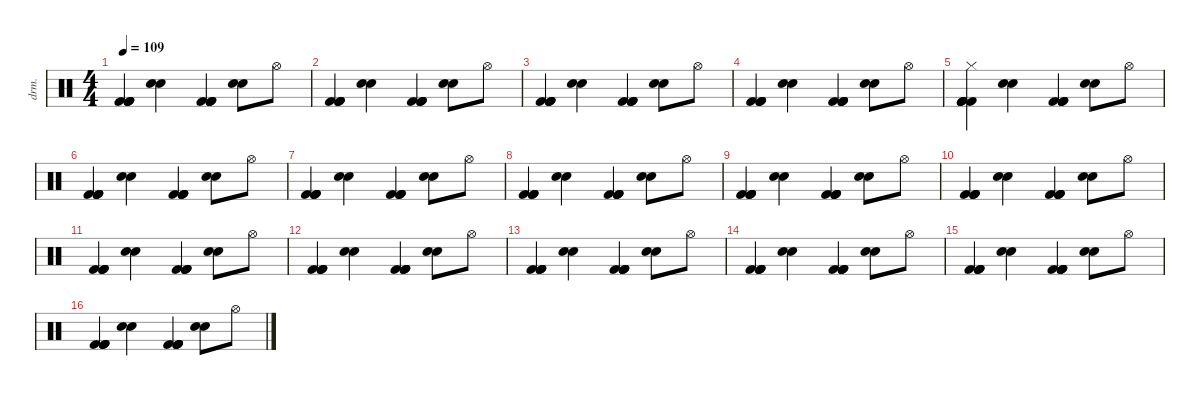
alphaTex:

\defaultSystemsLayout 4
\hideDynamics
\bracketExtendMode nobrackets
\otherSystemsTrackNameOrientation horizontal
\track ("Drums" "drm.") {instrument percussion}
\staff {score}
\articulation defaults
\ts (4 4)
\tempo 109
\clef neutral
\ks c
("Kick (hit) 2" "Kick (hit) 2" "Kick (hit) 2" "Kick (hit) 2").4{dy fff} ("Snare (hit) 2" "Snare (hit) 2").4{dy f} ("Kick (hit) 2" "Kick (hit) 2" "Kick (hit) 2" "Kick (hit) 2").4{dy fff} ("Snare (hit) 2" "Snare (hit) 2").8{dy f} "Hi-Hat (open)".8 |
("Kick (hit) 2" "Kick (hit) 2" "Kick (hit) 2" "Kick (hit) 2").4{dy fff} ("Snare (hit) 2" "Snare (hit) 2").4{dy f} ("Kick (hit) 2" "Kick (hit) 2" "Kick (hit) 2" "Kick (hit) 2").4{dy fff} ("Snare (hit) 2" "Snare (hit) 2").8{dy f} "Hi-Hat (open)".8 |
("Kick (hit) 2" "Kick (hit) 2" "Kick (hit) 2" "Kick (hit) 2").4{dy fff} ("Snare (hit) 2" "Snare (hit) 2").4{dy f} ("Kick (hit) 2" "Kick (hit) 2" "Kick (hit) 2" "Kick (hit) 2").4{dy fff} ("Snare (hit) 2" "Snare (hit) 2").8{dy f} "Hi-Hat (open)".8 |
("Kick (hit) 2" "Kick (hit) 2" "Kick (hit) 2" "Kick (hit) 2").4{dy fff} ("Snare (hit) 2" "Snare (hit) 2").4{dy f} ("Kick (hit) 2" "Kick (hit) 2" "Kick (hit) 2" "Kick (hit) 2").4{dy fff} ("Snare (hit) 2" "Snare (hit) 2").8{dy f} "Hi-Hat (open)".8 |
("Hi-Hat (closed)" "Kick (hit) 2" "Kick (hit) 2" "Kick (hit) 2" "Kick (hit) 2").4 ("Snare (hit) 2" "Snare (hit) 2").4 ("Kick (hit) 2" "Kick (hit) 2" "Kick (hit) 2" "Kick (hit) 2").4{dy fff} ("Snare (hit) 2" "Snare (hit) 2").8{dy f} "Hi-Hat (open)".8 |
("Kick (hit) 2" "Kick (hit) 2" "Kick (hit) 2" "Kick (hit) 2").4{dy fff} ("Snare (hit) 2" "Snare (hit) 2").4{dy f} ("Kick (hit) 2" "Kick (hit) 2" "Kick (hit) 2" "Kick (hit) 2").4{dy fff} ("Snare (hit) 2" "Snare (hit) 2").8{dy f} "Hi-Hat (open)".8 |
("Kick (hit) 2" "Kick (hit) 2" "Kick (hit) 2" "Kick (hit) 2").4{dy fff} ("Snare (hit) 2" "Snare (hit) 2").4{dy f} ("Kick (hit) 2" "Kick (hit) 2" "Kick (hit) 2" "Kick (hit) 2").4{dy fff} ("Snare (hit) 2" "Snare (hit) 2").8{dy f} "Hi-Hat (open)".8 |
("Kick (hit) 2" "Kick (hit) 2" "Kick (hit) 2" "Kick (hit) 2").4{dy fff} ("Snare (hit) 2" "Snare (hit) 2").4{dy f} ("Kick (hit) 2" "Kick (hit) 2" "Kick (hit) 2" "Kick (hit) 2").4{dy fff} ("Snare (hit) 2" "Snare (hit) 2").8{dy f} "Hi-Hat (open)".8 |
("Kick (hit) 2" "Kick (hit) 2" "Kick (hit) 2" "Kick (hit) 2").4{dy fff} ("Snare (hit) 2" "Snare (hit) 2").4{dy f} ("Kick (hit) 2" "Kick (hit) 2" "Kick (hit) 2" "Kick (hit) 2").4{dy fff} ("Snare (hit) 2" "Snare (hit) 2").8{dy f} "Hi-Hat (open)".8 |
("Kick (hit) 2" "Kick (hit) 2" "Kick (hit) 2" "Kick (hit) 2").4{dy fff} ("Snare (hit) 2" "Snare (hit) 2").4{dy f} ("Kick (hit) 2" "Kick (hit) 2" "Kick (hit) 2" "Kick (hit) 2").4{dy fff} ("Snare (hit) 2" "Snare (hit) 2").8{dy f} "Hi-Hat (open)".8 |
("Kick (hit) 2" "Kick (hit) 2" "Kick (hit) 2" "Kick (hit) 2").4{dy fff} ("Snare (hit) 2" "Snare (hit) 2").4{dy f} ("Kick (hit) 2" "Kick (hit) 2" "Kick (hit) 2" "Kick (hit) 2").4{dy fff} ("Snare (hit) 2" "Snare (hit) 2").8{dy f} "Hi-Hat (open)".8 |
("Kick (hit) 2" "Kick (hit) 2" "Kick (hit) 2" "Kick (hit) 2").4{dy fff} ("Snare (hit) 2" "Snare (hit) 2").4{dy f} ("Kick (hit) 2" "Kick (hit) 2" "Kick (hit) 2" "Kick (hit) 2").4{dy fff} ("Snare (hit) 2" "Snare (hit) 2").8{dy f} "Hi-Hat (open)".8 |
("Kick (hit) 2" "Kick (hit) 2" "Kick (hit) 2" "Kick (hit) 2").4{dy fff} ("Snare (hit) 2" "Snare (hit) 2").4{dy f} ("Kick (hit) 2" "Kick (hit) 2" "Kick (hit) 2" "Kick (hit) 2").4{dy fff} ("Snare (hit) 2" "Snare (hit) 2").8{dy f} "Hi-Hat (open)".8 |
("Kick (hit) 2" "Kick (hit) 2" "Kick (hit) 2" "Kick (hit) 2").4{dy fff} ("Snare (hit) 2" "Snare (hit) 2").4{dy f} ("Kick (hit) 2" "Kick (hit) 2" "Kick (hit) 2" "Kick (hit) 2").4{dy fff} ("Snare (hit) 2" "Snare (hit) 2").8{dy f} "Hi-Hat (open)".8 |
("Kick (hit) 2" "Kick (hit) 2" "Kick (hit) 2" "Kick (hit) 2").4{dy fff} ("Snare (hit) 2" "Snare (hit) 2").4{dy f} ("Kick (hit) 2" "Kick (hit) 2" "Kick (hit) 2" "Kick (hit) 2").4{dy fff} ("Snare (hit) 2" "Snare (hit) 2").8{dy f} "Hi-Hat (open)".8 |
("Kick (hit) 2" "Kick (hit) 2" "Kick (hit) 2" "Kick (hit) 2").4{dy fff} ("Snare (hit) 2" "Snare (hit) 2").4{dy f} ("Kick (hit) 2" "Kick (hit) 2" "Kick (hit) 2" "Kick (hit) 2").4{dy fff} ("Snare (hit) 2" "Snare (hit) 2").8{dy f} "Hi-Hat (open)".8
